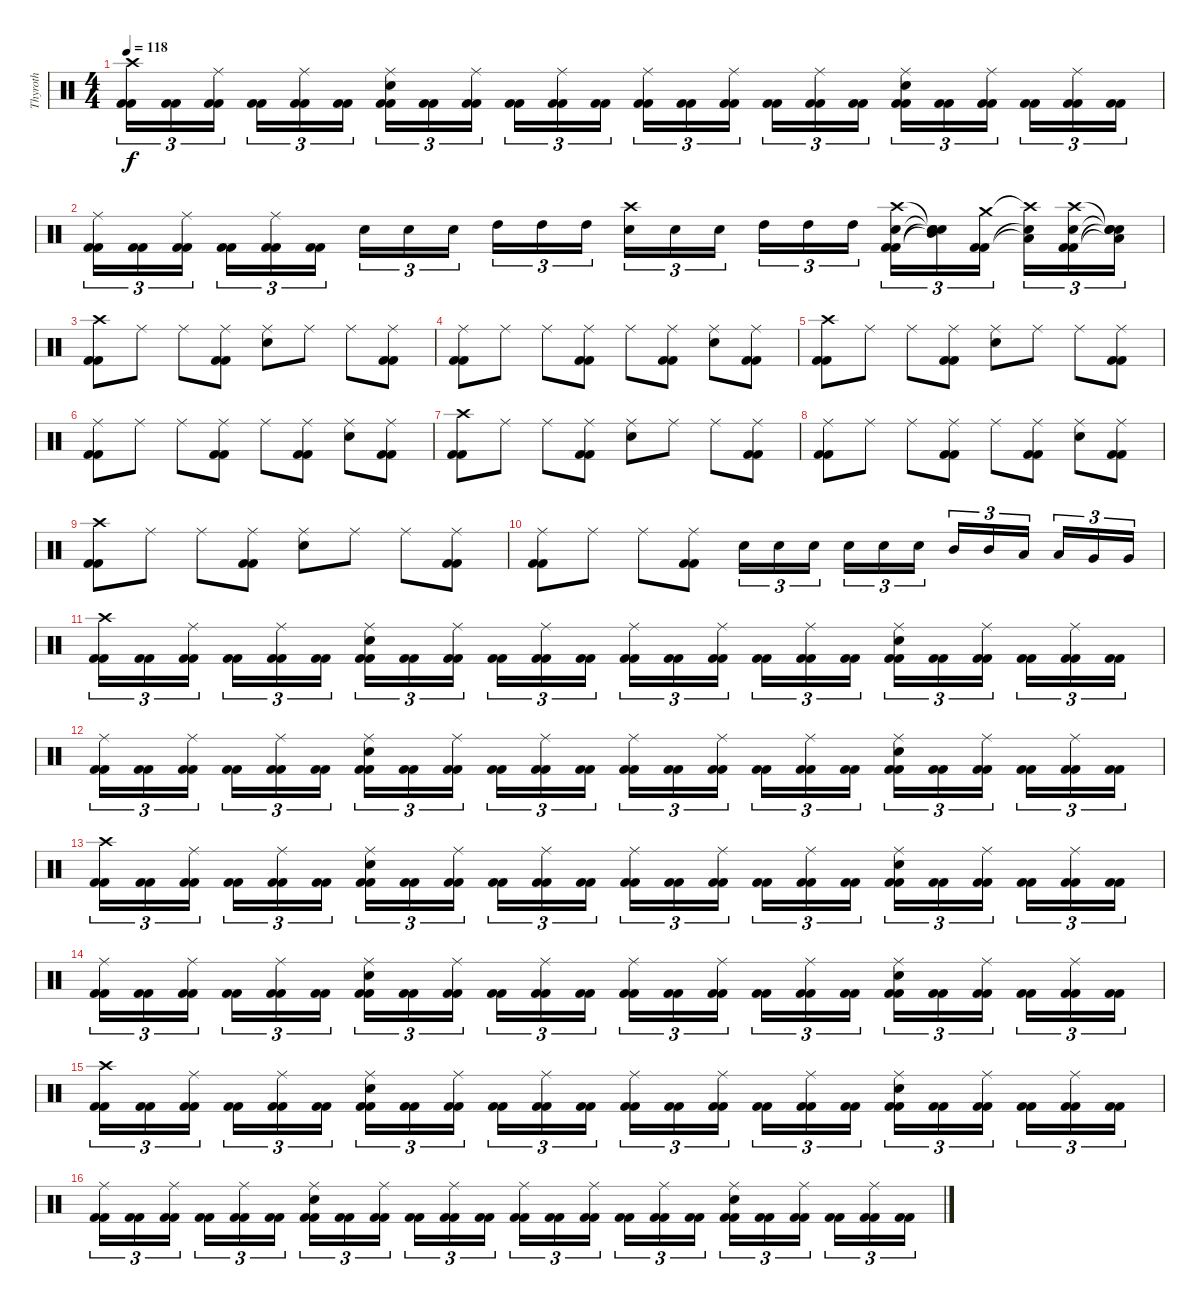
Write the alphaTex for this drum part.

\track ("Thyroth" "Thyroth") {instrument percussion}
\staff {score}
\articulation defaults
\ts (4 4)
\tempo 118
\clef neutral
\ks c
("Kick (hit) 2" "Kick (hit) 2" "Crash high (hit)").16{tu (3 2) dy f} ("Kick (hit) 2" "Kick (hit) 2").16{tu (3 2)} ("Kick (hit) 2" "Kick (hit) 2" "Ride (middle)").16{tu (3 2)} ("Kick (hit) 2" "Kick (hit) 2").16{tu (3 2)} ("Kick (hit) 2" "Kick (hit) 2" "Ride (middle)").16{tu (3 2)} ("Kick (hit) 2" "Kick (hit) 2").16{tu (3 2)} ("Kick (hit) 2" "Kick (hit) 2" "Snare (hit) 2" "Ride (middle)").16{tu (3 2)} ("Kick (hit) 2" "Kick (hit) 2").16{tu (3 2)} ("Kick (hit) 2" "Kick (hit) 2" "Ride (middle)").16{tu (3 2)} ("Kick (hit) 2" "Kick (hit) 2").16{tu (3 2)} ("Kick (hit) 2" "Kick (hit) 2" "Ride (middle)").16{tu (3 2)} ("Kick (hit) 2" "Kick (hit) 2").16{tu (3 2)} ("Kick (hit) 2" "Kick (hit) 2" "Ride (middle)").16{tu (3 2)} ("Kick (hit) 2" "Kick (hit) 2").16{tu (3 2)} ("Kick (hit) 2" "Kick (hit) 2" "Ride (middle)").16{tu (3 2)} ("Kick (hit) 2" "Kick (hit) 2").16{tu (3 2)} ("Kick (hit) 2" "Kick (hit) 2" "Ride (middle)").16{tu (3 2)} ("Kick (hit) 2" "Kick (hit) 2").16{tu (3 2)} ("Kick (hit) 2" "Kick (hit) 2" "Snare (hit) 2" "Ride (middle)").16{tu (3 2)} ("Kick (hit) 2" "Kick (hit) 2").16{tu (3 2)} ("Kick (hit) 2" "Kick (hit) 2" "Ride (middle)").16{tu (3 2)} ("Kick (hit) 2" "Kick (hit) 2").16{tu (3 2)} ("Kick (hit) 2" "Kick (hit) 2" "Ride (middle)").16{tu (3 2)} ("Kick (hit) 2" "Kick (hit) 2").16{tu (3 2)} |
("Kick (hit) 2" "Kick (hit) 2" "Ride (middle)").16{tu (3 2)} ("Kick (hit) 2" "Kick (hit) 2").16{tu (3 2)} ("Kick (hit) 2" "Kick (hit) 2" "Ride (middle)").16{tu (3 2)} ("Kick (hit) 2" "Kick (hit) 2").16{tu (3 2)} ("Kick (hit) 2" "Kick (hit) 2" "Ride (middle)").16{tu (3 2)} ("Kick (hit) 2" "Kick (hit) 2").16{tu (3 2)} "Snare (hit) 2".16{tu (3 2)} "Snare (hit) 2".16{tu (3 2)} "Snare (hit) 2".16{tu (3 2)} "High Tom (hit)".16{tu (3 2)} "High Tom (hit)".16{tu (3 2)} "High Tom (hit)".16{tu (3 2)} ("Snare (hit) 2" "Crash high (hit)").16{tu (3 2)} "Snare (hit) 2".16{tu (3 2)} "Snare (hit) 2".16{tu (3 2)} "High Tom (hit)".16{tu (3 2)} "High Tom (hit)".16{tu (3 2)} "High Tom (hit)".16{tu (3 2)} ("Kick (hit) 2" "Kick (hit) 2" "Snare (hit) 2" "Crash high (hit)").16{tu (3 2)} ("Snare (hit)"{t} "Mid Tom (hit)"{t} "Snare (hit)"{t} "Snare (hit)"{t}).16{tu (3 2)} ("Kick (hit) 2" "Kick (hit) 2" "Crash medium (hit)").16{tu (3 2)} ("Snare (hit)"{t} "Low Tom (hit)"{t} "Crash high (hit)"{t}).16{tu (3 2)} ("Kick (hit) 2" "Kick (hit) 2" "Snare (hit) 2" "Crash high (hit)").16{tu (3 2)} ("Snare (hit)"{t} "Low Tom (hit)"{t} "Snare (hit) 2"{t} "Snare (hit)"{t}).16{tu (3 2)} |
("Kick (hit) 2" "Kick (hit) 2" "Crash high (hit)").8 "Ride (middle)".8 "Ride (middle)".8 ("Kick (hit) 2" "Kick (hit) 2" "Ride (middle)").8 ("Snare (hit) 2" "Ride (middle)").8 "Ride (middle)".8 "Ride (middle)".8 ("Kick (hit) 2" "Kick (hit) 2" "Ride (middle)").8 |
("Kick (hit) 2" "Kick (hit) 2" "Ride (middle)").8 "Ride (middle)".8 "Ride (middle)".8 ("Kick (hit) 2" "Kick (hit) 2" "Ride (middle)").8 "Ride (middle)".8 ("Kick (hit) 2" "Kick (hit) 2" "Ride (middle)").8 ("Snare (hit) 2" "Ride (middle)").8 ("Kick (hit) 2" "Kick (hit) 2" "Ride (middle)").8 |
("Kick (hit) 2" "Kick (hit) 2" "Crash high (hit)").8 "Ride (middle)".8 "Ride (middle)".8 ("Kick (hit) 2" "Kick (hit) 2" "Ride (middle)").8 ("Snare (hit) 2" "Ride (middle)").8 "Ride (middle)".8 "Ride (middle)".8 ("Kick (hit) 2" "Kick (hit) 2" "Ride (middle)").8 |
("Kick (hit) 2" "Kick (hit) 2" "Ride (middle)").8 "Ride (middle)".8 "Ride (middle)".8 ("Kick (hit) 2" "Kick (hit) 2" "Ride (middle)").8 "Ride (middle)".8 ("Kick (hit) 2" "Kick (hit) 2" "Ride (middle)").8 ("Snare (hit) 2" "Ride (middle)").8 ("Kick (hit) 2" "Kick (hit) 2" "Ride (middle)").8 |
("Kick (hit) 2" "Kick (hit) 2" "Crash high (hit)").8 "Ride (middle)".8 "Ride (middle)".8 ("Kick (hit) 2" "Kick (hit) 2" "Ride (middle)").8 ("Snare (hit) 2" "Ride (middle)").8 "Ride (middle)".8 "Ride (middle)".8 ("Kick (hit) 2" "Kick (hit) 2" "Ride (middle)").8 |
("Kick (hit) 2" "Kick (hit) 2" "Ride (middle)").8 "Ride (middle)".8 "Ride (middle)".8 ("Kick (hit) 2" "Kick (hit) 2" "Ride (middle)").8 "Ride (middle)".8 ("Kick (hit) 2" "Kick (hit) 2" "Ride (middle)").8 ("Snare (hit) 2" "Ride (middle)").8 ("Kick (hit) 2" "Kick (hit) 2" "Ride (middle)").8 |
("Kick (hit) 2" "Kick (hit) 2" "Crash high (hit)").8 "Ride (middle)".8 "Ride (middle)".8 ("Kick (hit) 2" "Kick (hit) 2" "Ride (middle)").8 ("Snare (hit) 2" "Ride (middle)").8 "Ride (middle)".8 "Ride (middle)".8 ("Kick (hit) 2" "Kick (hit) 2" "Ride (middle)").8 |
("Kick (hit) 2" "Kick (hit) 2" "Ride (middle)").8 "Ride (middle)".8 "Ride (middle)".8 ("Kick (hit) 2" "Kick (hit) 2" "Ride (middle)").8 "Snare (hit) 2".16{tu (3 2)} "Snare (hit) 2".16{tu (3 2)} "Snare (hit) 2".16{tu (3 2)} "Snare (hit) 2".16{tu (3 2)} "Snare (hit) 2".16{tu (3 2)} "Snare (hit) 2".16{tu (3 2)} "Mid Tom (hit)".16{tu (3 2)} "Mid Tom (hit)".16{tu (3 2)} "Low Tom (hit)".16{tu (3 2)} "Low Tom (hit)".16{tu (3 2)} "Very Low Tom (hit)".16{tu (3 2)} "Very Low Tom (hit)".16{tu (3 2)} |
("Kick (hit) 2" "Kick (hit) 2" "Crash high (hit)").16{tu (3 2)} ("Kick (hit) 2" "Kick (hit) 2").16{tu (3 2)} ("Kick (hit) 2" "Kick (hit) 2" "Ride (middle)").16{tu (3 2)} ("Kick (hit) 2" "Kick (hit) 2").16{tu (3 2)} ("Kick (hit) 2" "Kick (hit) 2" "Ride (middle)").16{tu (3 2)} ("Kick (hit) 2" "Kick (hit) 2").16{tu (3 2)} ("Kick (hit) 2" "Kick (hit) 2" "Snare (hit) 2" "Ride (middle)").16{tu (3 2)} ("Kick (hit) 2" "Kick (hit) 2").16{tu (3 2)} ("Kick (hit) 2" "Kick (hit) 2" "Ride (middle)").16{tu (3 2)} ("Kick (hit) 2" "Kick (hit) 2").16{tu (3 2)} ("Kick (hit) 2" "Kick (hit) 2" "Ride (middle)").16{tu (3 2)} ("Kick (hit) 2" "Kick (hit) 2").16{tu (3 2)} ("Kick (hit) 2" "Kick (hit) 2" "Ride (middle)").16{tu (3 2)} ("Kick (hit) 2" "Kick (hit) 2").16{tu (3 2)} ("Kick (hit) 2" "Kick (hit) 2" "Ride (middle)").16{tu (3 2)} ("Kick (hit) 2" "Kick (hit) 2").16{tu (3 2)} ("Kick (hit) 2" "Kick (hit) 2" "Ride (middle)").16{tu (3 2)} ("Kick (hit) 2" "Kick (hit) 2").16{tu (3 2)} ("Kick (hit) 2" "Kick (hit) 2" "Snare (hit) 2" "Ride (middle)").16{tu (3 2)} ("Kick (hit) 2" "Kick (hit) 2").16{tu (3 2)} ("Kick (hit) 2" "Kick (hit) 2" "Ride (middle)").16{tu (3 2)} ("Kick (hit) 2" "Kick (hit) 2").16{tu (3 2)} ("Kick (hit) 2" "Kick (hit) 2" "Ride (middle)").16{tu (3 2)} ("Kick (hit) 2" "Kick (hit) 2").16{tu (3 2)} |
("Kick (hit) 2" "Kick (hit) 2" "Ride (middle)").16{tu (3 2)} ("Kick (hit) 2" "Kick (hit) 2").16{tu (3 2)} ("Kick (hit) 2" "Kick (hit) 2" "Ride (middle)").16{tu (3 2)} ("Kick (hit) 2" "Kick (hit) 2").16{tu (3 2)} ("Kick (hit) 2" "Kick (hit) 2" "Ride (middle)").16{tu (3 2)} ("Kick (hit) 2" "Kick (hit) 2").16{tu (3 2)} ("Kick (hit) 2" "Kick (hit) 2" "Snare (hit) 2" "Ride (middle)").16{tu (3 2)} ("Kick (hit) 2" "Kick (hit) 2").16{tu (3 2)} ("Kick (hit) 2" "Kick (hit) 2" "Ride (middle)").16{tu (3 2)} ("Kick (hit) 2" "Kick (hit) 2").16{tu (3 2)} ("Kick (hit) 2" "Kick (hit) 2" "Ride (middle)").16{tu (3 2)} ("Kick (hit) 2" "Kick (hit) 2").16{tu (3 2)} ("Kick (hit) 2" "Kick (hit) 2" "Ride (middle)").16{tu (3 2)} ("Kick (hit) 2" "Kick (hit) 2").16{tu (3 2)} ("Kick (hit) 2" "Kick (hit) 2" "Ride (middle)").16{tu (3 2)} ("Kick (hit) 2" "Kick (hit) 2").16{tu (3 2)} ("Kick (hit) 2" "Kick (hit) 2" "Ride (middle)").16{tu (3 2)} ("Kick (hit) 2" "Kick (hit) 2").16{tu (3 2)} ("Kick (hit) 2" "Kick (hit) 2" "Snare (hit) 2" "Ride (middle)").16{tu (3 2)} ("Kick (hit) 2" "Kick (hit) 2").16{tu (3 2)} ("Kick (hit) 2" "Kick (hit) 2" "Ride (middle)").16{tu (3 2)} ("Kick (hit) 2" "Kick (hit) 2").16{tu (3 2)} ("Kick (hit) 2" "Kick (hit) 2" "Ride (middle)").16{tu (3 2)} ("Kick (hit) 2" "Kick (hit) 2").16{tu (3 2)} |
("Kick (hit) 2" "Kick (hit) 2" "Crash high (hit)").16{tu (3 2)} ("Kick (hit) 2" "Kick (hit) 2").16{tu (3 2)} ("Kick (hit) 2" "Kick (hit) 2" "Ride (middle)").16{tu (3 2)} ("Kick (hit) 2" "Kick (hit) 2").16{tu (3 2)} ("Kick (hit) 2" "Kick (hit) 2" "Ride (middle)").16{tu (3 2)} ("Kick (hit) 2" "Kick (hit) 2").16{tu (3 2)} ("Kick (hit) 2" "Kick (hit) 2" "Snare (hit) 2" "Ride (middle)").16{tu (3 2)} ("Kick (hit) 2" "Kick (hit) 2").16{tu (3 2)} ("Kick (hit) 2" "Kick (hit) 2" "Ride (middle)").16{tu (3 2)} ("Kick (hit) 2" "Kick (hit) 2").16{tu (3 2)} ("Kick (hit) 2" "Kick (hit) 2" "Ride (middle)").16{tu (3 2)} ("Kick (hit) 2" "Kick (hit) 2").16{tu (3 2)} ("Kick (hit) 2" "Kick (hit) 2" "Ride (middle)").16{tu (3 2)} ("Kick (hit) 2" "Kick (hit) 2").16{tu (3 2)} ("Kick (hit) 2" "Kick (hit) 2" "Ride (middle)").16{tu (3 2)} ("Kick (hit) 2" "Kick (hit) 2").16{tu (3 2)} ("Kick (hit) 2" "Kick (hit) 2" "Ride (middle)").16{tu (3 2)} ("Kick (hit) 2" "Kick (hit) 2").16{tu (3 2)} ("Kick (hit) 2" "Kick (hit) 2" "Snare (hit) 2" "Ride (middle)").16{tu (3 2)} ("Kick (hit) 2" "Kick (hit) 2").16{tu (3 2)} ("Kick (hit) 2" "Kick (hit) 2" "Ride (middle)").16{tu (3 2)} ("Kick (hit) 2" "Kick (hit) 2").16{tu (3 2)} ("Kick (hit) 2" "Kick (hit) 2" "Ride (middle)").16{tu (3 2)} ("Kick (hit) 2" "Kick (hit) 2").16{tu (3 2)} |
("Kick (hit) 2" "Kick (hit) 2" "Ride (middle)").16{tu (3 2)} ("Kick (hit) 2" "Kick (hit) 2").16{tu (3 2)} ("Kick (hit) 2" "Kick (hit) 2" "Ride (middle)").16{tu (3 2)} ("Kick (hit) 2" "Kick (hit) 2").16{tu (3 2)} ("Kick (hit) 2" "Kick (hit) 2" "Ride (middle)").16{tu (3 2)} ("Kick (hit) 2" "Kick (hit) 2").16{tu (3 2)} ("Kick (hit) 2" "Kick (hit) 2" "Snare (hit) 2" "Ride (middle)").16{tu (3 2)} ("Kick (hit) 2" "Kick (hit) 2").16{tu (3 2)} ("Kick (hit) 2" "Kick (hit) 2" "Ride (middle)").16{tu (3 2)} ("Kick (hit) 2" "Kick (hit) 2").16{tu (3 2)} ("Kick (hit) 2" "Kick (hit) 2" "Ride (middle)").16{tu (3 2)} ("Kick (hit) 2" "Kick (hit) 2").16{tu (3 2)} ("Kick (hit) 2" "Kick (hit) 2" "Ride (middle)").16{tu (3 2)} ("Kick (hit) 2" "Kick (hit) 2").16{tu (3 2)} ("Kick (hit) 2" "Kick (hit) 2" "Ride (middle)").16{tu (3 2)} ("Kick (hit) 2" "Kick (hit) 2").16{tu (3 2)} ("Kick (hit) 2" "Kick (hit) 2" "Ride (middle)").16{tu (3 2)} ("Kick (hit) 2" "Kick (hit) 2").16{tu (3 2)} ("Kick (hit) 2" "Kick (hit) 2" "Snare (hit) 2" "Ride (middle)").16{tu (3 2)} ("Kick (hit) 2" "Kick (hit) 2").16{tu (3 2)} ("Kick (hit) 2" "Kick (hit) 2" "Ride (middle)").16{tu (3 2)} ("Kick (hit) 2" "Kick (hit) 2").16{tu (3 2)} ("Kick (hit) 2" "Kick (hit) 2" "Ride (middle)").16{tu (3 2)} ("Kick (hit) 2" "Kick (hit) 2").16{tu (3 2)} |
("Kick (hit) 2" "Kick (hit) 2" "Crash high (hit)").16{tu (3 2)} ("Kick (hit) 2" "Kick (hit) 2").16{tu (3 2)} ("Kick (hit) 2" "Kick (hit) 2" "Ride (middle)").16{tu (3 2)} ("Kick (hit) 2" "Kick (hit) 2").16{tu (3 2)} ("Kick (hit) 2" "Kick (hit) 2" "Ride (middle)").16{tu (3 2)} ("Kick (hit) 2" "Kick (hit) 2").16{tu (3 2)} ("Kick (hit) 2" "Kick (hit) 2" "Snare (hit) 2" "Ride (middle)").16{tu (3 2)} ("Kick (hit) 2" "Kick (hit) 2").16{tu (3 2)} ("Kick (hit) 2" "Kick (hit) 2" "Ride (middle)").16{tu (3 2)} ("Kick (hit) 2" "Kick (hit) 2").16{tu (3 2)} ("Kick (hit) 2" "Kick (hit) 2" "Ride (middle)").16{tu (3 2)} ("Kick (hit) 2" "Kick (hit) 2").16{tu (3 2)} ("Kick (hit) 2" "Kick (hit) 2" "Ride (middle)").16{tu (3 2)} ("Kick (hit) 2" "Kick (hit) 2").16{tu (3 2)} ("Kick (hit) 2" "Kick (hit) 2" "Ride (middle)").16{tu (3 2)} ("Kick (hit) 2" "Kick (hit) 2").16{tu (3 2)} ("Kick (hit) 2" "Kick (hit) 2" "Ride (middle)").16{tu (3 2)} ("Kick (hit) 2" "Kick (hit) 2").16{tu (3 2)} ("Kick (hit) 2" "Kick (hit) 2" "Snare (hit) 2" "Ride (middle)").16{tu (3 2)} ("Kick (hit) 2" "Kick (hit) 2").16{tu (3 2)} ("Kick (hit) 2" "Kick (hit) 2" "Ride (middle)").16{tu (3 2)} ("Kick (hit) 2" "Kick (hit) 2").16{tu (3 2)} ("Kick (hit) 2" "Kick (hit) 2" "Ride (middle)").16{tu (3 2)} ("Kick (hit) 2" "Kick (hit) 2").16{tu (3 2)} |
("Kick (hit) 2" "Kick (hit) 2" "Ride (middle)").16{tu (3 2)} ("Kick (hit) 2" "Kick (hit) 2").16{tu (3 2)} ("Kick (hit) 2" "Kick (hit) 2" "Ride (middle)").16{tu (3 2)} ("Kick (hit) 2" "Kick (hit) 2").16{tu (3 2)} ("Kick (hit) 2" "Kick (hit) 2" "Ride (middle)").16{tu (3 2)} ("Kick (hit) 2" "Kick (hit) 2").16{tu (3 2)} ("Kick (hit) 2" "Kick (hit) 2" "Snare (hit) 2" "Ride (middle)").16{tu (3 2)} ("Kick (hit) 2" "Kick (hit) 2").16{tu (3 2)} ("Kick (hit) 2" "Kick (hit) 2" "Ride (middle)").16{tu (3 2)} ("Kick (hit) 2" "Kick (hit) 2").16{tu (3 2)} ("Kick (hit) 2" "Kick (hit) 2" "Ride (middle)").16{tu (3 2)} ("Kick (hit) 2" "Kick (hit) 2").16{tu (3 2)} ("Kick (hit) 2" "Kick (hit) 2" "Ride (middle)").16{tu (3 2)} ("Kick (hit) 2" "Kick (hit) 2").16{tu (3 2)} ("Kick (hit) 2" "Kick (hit) 2" "Ride (middle)").16{tu (3 2)} ("Kick (hit) 2" "Kick (hit) 2").16{tu (3 2)} ("Kick (hit) 2" "Kick (hit) 2" "Ride (middle)").16{tu (3 2)} ("Kick (hit) 2" "Kick (hit) 2").16{tu (3 2)} ("Kick (hit) 2" "Kick (hit) 2" "Snare (hit) 2" "Ride (middle)").16{tu (3 2)} ("Kick (hit) 2" "Kick (hit) 2").16{tu (3 2)} ("Kick (hit) 2" "Kick (hit) 2" "Ride (middle)").16{tu (3 2)} ("Kick (hit) 2" "Kick (hit) 2").16{tu (3 2)} ("Kick (hit) 2" "Kick (hit) 2" "Ride (middle)").16{tu (3 2)} ("Kick (hit) 2" "Kick (hit) 2").16{tu (3 2)}
